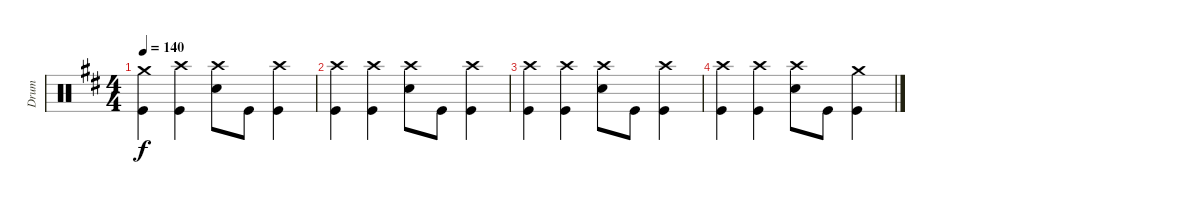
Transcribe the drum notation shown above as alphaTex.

\track ("Drum" "Drum") {instrument percussion}
\staff {score}
\articulation defaults
\ts (4 4)
\tempo 140
\clef neutral
\ks d
("Crash medium (hit)" "Kick (hit)").4{dy f} ("Crash high (hit)" "Kick (hit)").4 ("Crash high (hit)" "Snare (hit) 2").8 "Kick (hit)".8 ("Crash high (hit)" "Kick (hit)").4 |
("Crash high (hit)" "Kick (hit)").4 ("Crash high (hit)" "Kick (hit)").4 ("Crash high (hit)" "Snare (hit) 2").8 "Kick (hit)".8 ("Crash high (hit)" "Kick (hit)").4 |
("Crash high (hit)" "Kick (hit)").4 ("Crash high (hit)" "Kick (hit)").4 ("Crash high (hit)" "Snare (hit) 2").8 "Kick (hit)".8 ("Crash high (hit)" "Kick (hit)").4 |
("Crash high (hit)" "Kick (hit)").4 ("Crash high (hit)" "Kick (hit)").4 ("Crash high (hit)" "Snare (hit) 2").8 "Kick (hit)".8 ("Crash medium (hit)" "Kick (hit)").4
